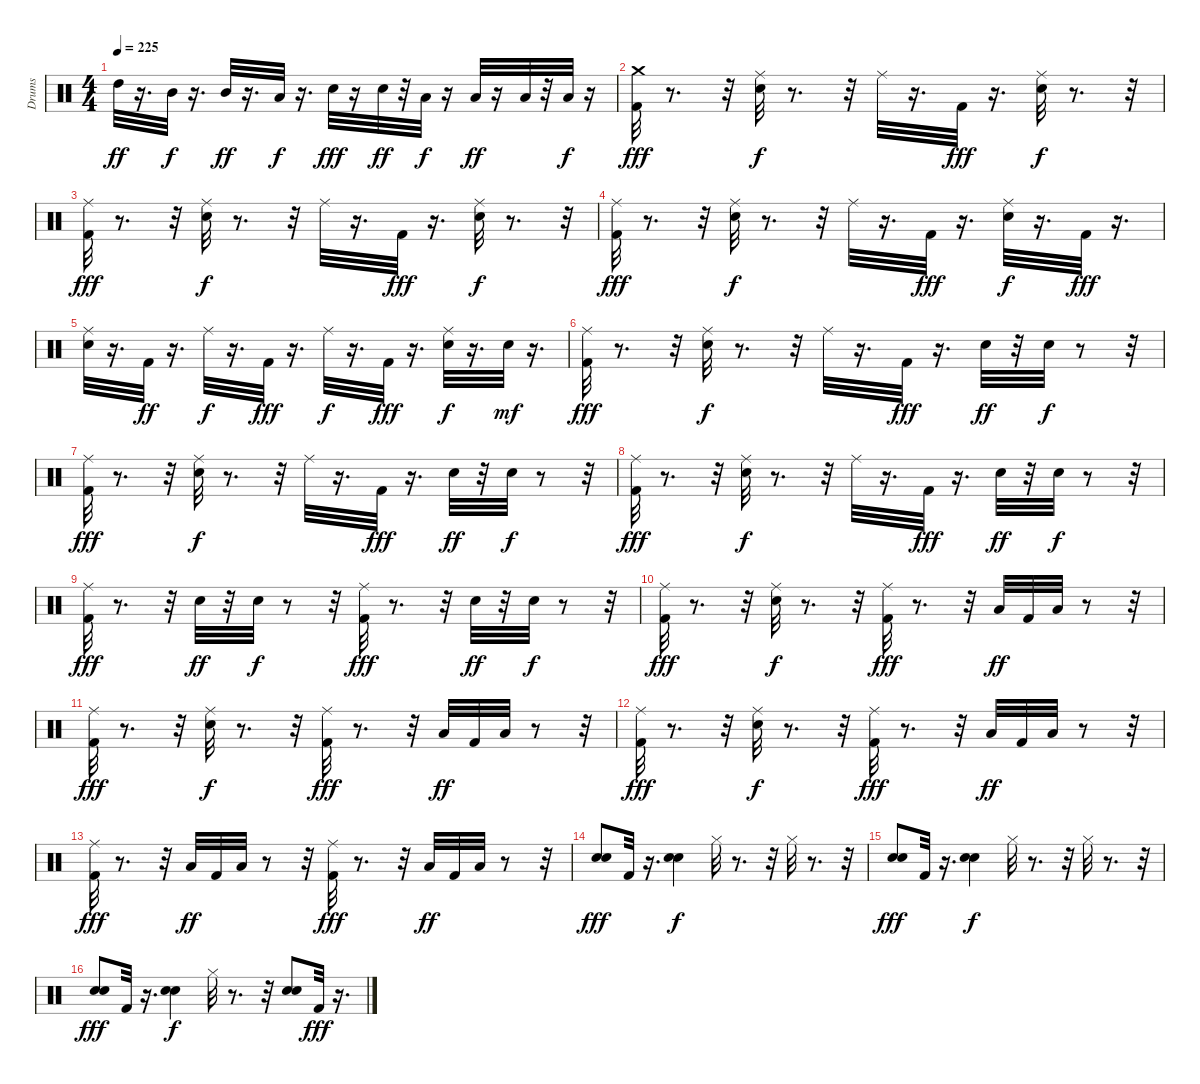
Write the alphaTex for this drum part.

\track ("Drums" "Drums") {instrument percussion}
\staff {score}
\articulation defaults
\ts (4 4)
\tempo 225
\clef neutral
\ks c "High Tom (hit)".32{dy ff}
r.16{d} "Mid Tom (hit)".32{dy f} r.16{d} "Mid Tom (hit)".32{dy ff} r.16{d} "Low Tom (hit)".32{dy f} r.16{d} "Snare (hit) 2".32{dy fff} r.16 "Snare (hit) 2".32{dy ff} r.32 "Low Tom (hit)".32{dy f} r.16 "Low Tom (hit)".32{dy ff} r.16 "Low Floor Tom (hit)".32 r.32 "Low Floor Tom (hit)".32{dy f} r.16 |
("Crash medium (hit)" "Kick (hit) 2").32{dy fff} r.8{d} r.32 ("Ride (middle)" "Snare (hit) 2").32{dy f} r.8{d} r.32 "Ride (middle)".32 r.16{d} "Kick (hit) 2".32{dy fff} r.16{d} ("Ride (middle)" "Snare (hit) 2").32{dy f} r.8{d} r.32 |
("Kick (hit) 2" "Ride (middle)").32{dy fff} r.8{d} r.32 ("Snare (hit) 2" "Ride (middle)").32{dy f} r.8{d} r.32 "Ride (middle)".32 r.16{d} "Kick (hit) 2".32{dy fff} r.16{d} ("Snare (hit) 2" "Ride (middle)").32{dy f} r.8{d} r.32 |
("Kick (hit) 2" "Ride (middle)").32{dy fff} r.8{d} r.32 ("Snare (hit) 2" "Ride (middle)").32{dy f} r.8{d} r.32 "Ride (middle)".32 r.16{d} "Kick (hit) 2".32{dy fff} r.16{d} ("Snare (hit) 2" "Ride (middle)").32{dy f} r.16{d} "Kick (hit) 2".32{dy fff} r.16{d} |
("Snare (hit) 2" "Ride (middle)").32 r.16{d} "Kick (hit) 2".32{dy ff} r.16{d} "Ride (middle)".32{dy f} r.16{d} "Kick (hit) 2".32{dy fff} r.16{d} "Ride (middle)".32{dy f} r.16{d} "Kick (hit) 2".32{dy fff} r.16{d} ("Snare (hit) 2" "Ride (middle)").32{dy f} r.16{d} "Snare (hit) 2".32{dy mf} r.16{d} |
("Kick (hit) 2" "Ride (middle)").32{dy fff} r.8{d} r.32 ("Snare (hit) 2" "Ride (middle)").32{dy f} r.8{d} r.32 "Ride (middle)".32 r.16{d} "Kick (hit) 2".32{dy fff} r.16{d} "Snare (hit) 2".32{dy ff} r.32 "Snare (hit) 2".32{dy f} r.8 r.32 |
("Kick (hit) 2" "Ride (middle)").32{dy fff} r.8{d} r.32 ("Snare (hit) 2" "Ride (middle)").32{dy f} r.8{d} r.32 "Ride (middle)".32 r.16{d} "Kick (hit) 2".32{dy fff} r.16{d} "Snare (hit) 2".32{dy ff} r.32 "Snare (hit) 2".32{dy f} r.8 r.32 |
("Kick (hit) 2" "Ride (middle)").32{dy fff} r.8{d} r.32 ("Snare (hit) 2" "Ride (middle)").32{dy f} r.8{d} r.32 "Ride (middle)".32 r.16{d} "Kick (hit) 2".32{dy fff} r.16{d} "Snare (hit) 2".32{dy ff} r.32 "Snare (hit) 2".32{dy f} r.8 r.32 |
("Kick (hit) 2" "Ride (middle)").32{dy fff} r.8{d} r.32 "Snare (hit) 2".32{dy ff} r.32 "Snare (hit) 2".32{dy f} r.8 r.32 ("Kick (hit) 2" "Ride (middle)").32{dy fff} r.8{d} r.32 "Snare (hit) 2".32{dy ff} r.32 "Snare (hit) 2".32{dy f} r.8 r.32 |
("Ride (middle)" "Kick (hit) 2").32{dy fff} r.8{d} r.32 ("Snare (hit) 2" "Ride (middle)").32{dy f} r.8{d} r.32 ("Kick (hit) 2" "Ride (middle)").32{dy fff} r.8{d} r.32 "Low Tom (hit)".32{dy ff} "Kick (hit) 2".32 "Low Floor Tom (hit)".32 r.8 r.32 |
("Ride (middle)" "Kick (hit) 2").32{dy fff} r.8{d} r.32 ("Snare (hit) 2" "Ride (middle)").32{dy f} r.8{d} r.32 ("Kick (hit) 2" "Ride (middle)").32{dy fff} r.8{d} r.32 "Low Tom (hit)".32{dy ff} "Kick (hit) 2".32 "Low Floor Tom (hit)".32 r.8 r.32 |
("Ride (middle)" "Kick (hit) 2").32{dy fff} r.8{d} r.32 ("Snare (hit) 2" "Ride (middle)").32{dy f} r.8{d} r.32 ("Kick (hit) 2" "Ride (middle)").32{dy fff} r.8{d} r.32 "Low Tom (hit)".32{dy ff} "Kick (hit) 2".32 "Low Floor Tom (hit)".32 r.8 r.32 |
("Kick (hit) 2" "Ride (middle)").32{dy fff} r.8{d} r.32 "Low Tom (hit)".32{dy ff} "Kick (hit) 2".32 "Low Floor Tom (hit)".32 r.8 r.32 ("Kick (hit) 2" "Ride (middle)").32{dy fff} r.8{d} r.32 "Low Tom (hit)".32{dy ff} "Kick (hit) 2".32 "Low Floor Tom (hit)".32 r.8 r.32 |
("Snare (hit) 2" "Snare (hit) 2").8{dy fff} "Kick (hit) 2".32 r.16{d} ("Snare (hit) 2" "Snare (hit) 2").4{dy f} "Hi-Hat (closed)".32 r.8{d} r.32 "Hi-Hat (closed)".32 r.8{d} r.32 |
("Snare (hit) 2" "Snare (hit) 2").8{dy fff} "Kick (hit) 2".32 r.16{d} ("Snare (hit) 2" "Snare (hit) 2").4{dy f} "Hi-Hat (closed)".32 r.8{d} r.32 "Hi-Hat (closed)".32 r.8{d} r.32 |
("Snare (hit) 2" "Snare (hit) 2").8{dy fff} "Kick (hit) 2".32 r.16{d} ("Snare (hit) 2" "Snare (hit) 2").4{dy f} "Hi-Hat (closed)".32 r.8{d} r.32 ("Snare (hit) 2" "Snare (hit) 2").8 "Kick (hit) 2".32{dy fff} r.16{d}
